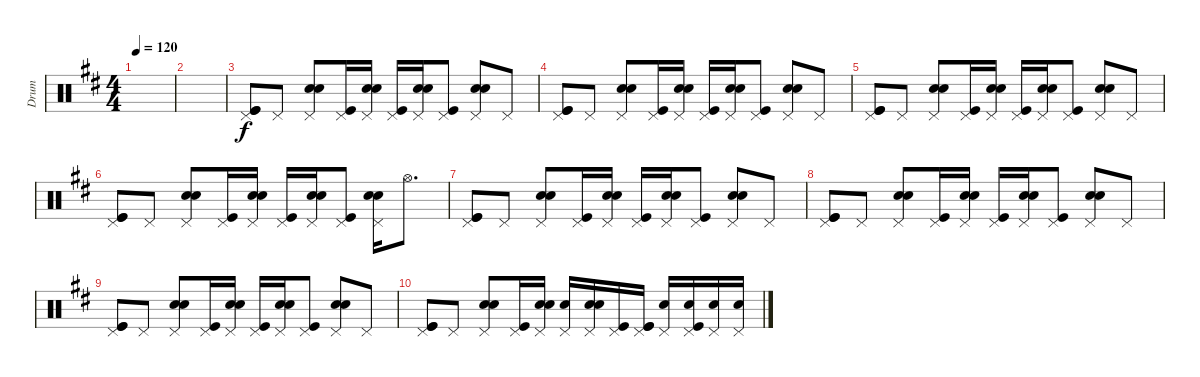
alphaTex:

\track ("Drum" "Drum") {instrument percussion}
\staff {score}
\articulation defaults
\ts (4 4)
\tempo 120
\clef neutral
\ks d
|
|
("Pedal Hi-Hat (hit)" "Kick (hit)" "Kick (hit)").8 "Pedal Hi-Hat (hit)".8 ("Pedal Hi-Hat (hit)" "Electric Snare (hit)" "Electric Snare (hit)").8 ("Pedal Hi-Hat (hit)" "Kick (hit)").16 ("Pedal Hi-Hat (hit)" "Electric Snare (hit)" "Electric Snare (hit)").16 ("Pedal Hi-Hat (hit)" "Kick (hit)").16 ("Pedal Hi-Hat (hit)" "Electric Snare (hit)" "Electric Snare (hit)").16 ("Pedal Hi-Hat (hit)" "Kick (hit)").8 ("Pedal Hi-Hat (hit)" "Electric Snare (hit)" "Electric Snare (hit)").8 "Pedal Hi-Hat (hit)".8 |
("Pedal Hi-Hat (hit)" "Kick (hit)" "Kick (hit)").8 "Pedal Hi-Hat (hit)".8 ("Pedal Hi-Hat (hit)" "Electric Snare (hit)" "Electric Snare (hit)").8 ("Pedal Hi-Hat (hit)" "Kick (hit)").16 ("Pedal Hi-Hat (hit)" "Electric Snare (hit)" "Electric Snare (hit)").16 ("Pedal Hi-Hat (hit)" "Kick (hit)").16 ("Pedal Hi-Hat (hit)" "Electric Snare (hit)" "Electric Snare (hit)").16 ("Pedal Hi-Hat (hit)" "Kick (hit)").8 ("Pedal Hi-Hat (hit)" "Electric Snare (hit)" "Electric Snare (hit)").8 "Pedal Hi-Hat (hit)".8 |
("Pedal Hi-Hat (hit)" "Kick (hit)" "Kick (hit)").8 "Pedal Hi-Hat (hit)".8 ("Pedal Hi-Hat (hit)" "Electric Snare (hit)" "Electric Snare (hit)").8 ("Pedal Hi-Hat (hit)" "Kick (hit)").16 ("Pedal Hi-Hat (hit)" "Electric Snare (hit)" "Electric Snare (hit)").16 ("Pedal Hi-Hat (hit)" "Kick (hit)").16 ("Pedal Hi-Hat (hit)" "Electric Snare (hit)" "Electric Snare (hit)").16 ("Pedal Hi-Hat (hit)" "Kick (hit)").8 ("Pedal Hi-Hat (hit)" "Electric Snare (hit)" "Electric Snare (hit)").8 "Pedal Hi-Hat (hit)".8 |
("Pedal Hi-Hat (hit)" "Kick (hit)" "Kick (hit)").8 "Pedal Hi-Hat (hit)".8 ("Pedal Hi-Hat (hit)" "Electric Snare (hit)" "Electric Snare (hit)").8 ("Pedal Hi-Hat (hit)" "Kick (hit)").16 ("Pedal Hi-Hat (hit)" "Electric Snare (hit)" "Electric Snare (hit)").16 ("Pedal Hi-Hat (hit)" "Kick (hit)").16 ("Pedal Hi-Hat (hit)" "Electric Snare (hit)" "Electric Snare (hit)").16 ("Pedal Hi-Hat (hit)" "Kick (hit)").8 ("Pedal Hi-Hat (hit)" "Electric Snare (hit)" "Electric Snare (hit)").16 "Hi-Hat (open)".8{d} |
("Pedal Hi-Hat (hit)" "Kick (hit)" "Kick (hit)").8 "Pedal Hi-Hat (hit)".8 ("Pedal Hi-Hat (hit)" "Electric Snare (hit)" "Electric Snare (hit)").8 ("Pedal Hi-Hat (hit)" "Kick (hit)").16 ("Pedal Hi-Hat (hit)" "Electric Snare (hit)" "Electric Snare (hit)").16 ("Pedal Hi-Hat (hit)" "Kick (hit)").16 ("Pedal Hi-Hat (hit)" "Electric Snare (hit)" "Electric Snare (hit)").16 ("Pedal Hi-Hat (hit)" "Kick (hit)").8 ("Pedal Hi-Hat (hit)" "Electric Snare (hit)" "Electric Snare (hit)").8 "Pedal Hi-Hat (hit)".8 |
("Pedal Hi-Hat (hit)" "Kick (hit)" "Kick (hit)").8 "Pedal Hi-Hat (hit)".8 ("Pedal Hi-Hat (hit)" "Electric Snare (hit)" "Electric Snare (hit)").8 ("Pedal Hi-Hat (hit)" "Kick (hit)").16 ("Pedal Hi-Hat (hit)" "Electric Snare (hit)" "Electric Snare (hit)").16 ("Pedal Hi-Hat (hit)" "Kick (hit)").16 ("Pedal Hi-Hat (hit)" "Electric Snare (hit)" "Electric Snare (hit)").16 ("Pedal Hi-Hat (hit)" "Kick (hit)").8 ("Pedal Hi-Hat (hit)" "Electric Snare (hit)" "Electric Snare (hit)").8 "Pedal Hi-Hat (hit)".8 |
("Pedal Hi-Hat (hit)" "Kick (hit)" "Kick (hit)").8 "Pedal Hi-Hat (hit)".8 ("Pedal Hi-Hat (hit)" "Electric Snare (hit)" "Electric Snare (hit)").8 ("Pedal Hi-Hat (hit)" "Kick (hit)").16 ("Pedal Hi-Hat (hit)" "Electric Snare (hit)" "Electric Snare (hit)").16 ("Pedal Hi-Hat (hit)" "Kick (hit)").16 ("Pedal Hi-Hat (hit)" "Electric Snare (hit)" "Electric Snare (hit)").16 ("Pedal Hi-Hat (hit)" "Kick (hit)").8 ("Pedal Hi-Hat (hit)" "Electric Snare (hit)" "Electric Snare (hit)").8 "Pedal Hi-Hat (hit)".8 |
("Pedal Hi-Hat (hit)" "Kick (hit)" "Kick (hit)").8 "Pedal Hi-Hat (hit)".8 ("Pedal Hi-Hat (hit)" "Electric Snare (hit)" "Electric Snare (hit)").8 ("Pedal Hi-Hat (hit)" "Kick (hit)").16 ("Pedal Hi-Hat (hit)" "Electric Snare (hit)" "Electric Snare (hit)").16 ("Pedal Hi-Hat (hit)" "Electric Snare (hit)").16 ("Pedal Hi-Hat (hit)" "Electric Snare (hit)" "Electric Snare (hit)").16 ("Pedal Hi-Hat (hit)" "Kick (hit)").16 ("Pedal Hi-Hat (hit)" "Kick (hit)" "Kick (hit)").16 ("Pedal Hi-Hat (hit)" "Electric Snare (hit)").16 ("Pedal Hi-Hat (hit)" "Kick (hit)" "Electric Snare (hit)").16 ("Pedal Hi-Hat (hit)" "Electric Snare (hit)").16 ("Pedal Hi-Hat (hit)" "Electric Snare (hit)").16
